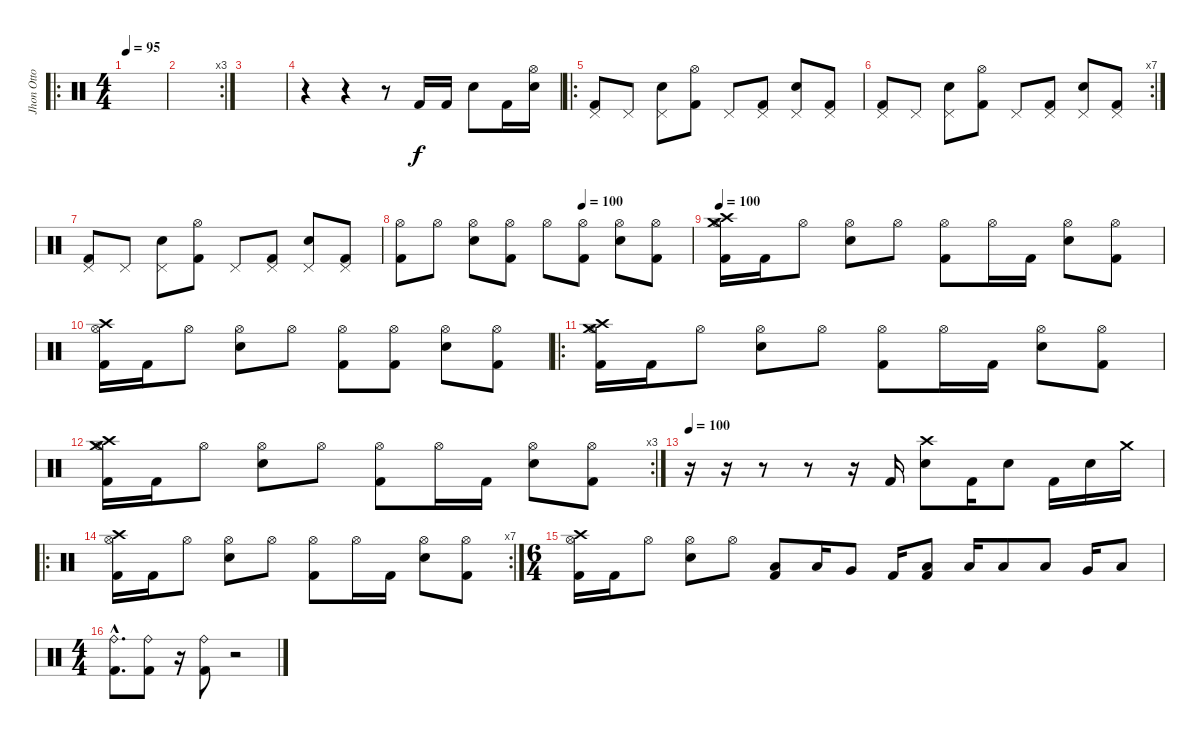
\track ("Jhon Otto" "Jhon Otto") {instrument percussion}
\staff {score}
\articulation defaults
\ro
\ts (4 4)
\tempo 95
\clef neutral
\ks c
|
\rc 3
|
|
r.4 r.4 r.8 "Kick (hit) 2".16 "Kick (hit) 2".16 "Snare (hit) 2".8 "Kick (hit) 2".16 ("Hi-Hat (open)" "Snare (hit) 2").16 |
\ro
("Pedal Hi-Hat (hit)" "Kick (hit) 2").8 "Pedal Hi-Hat (hit)".8 ("Pedal Hi-Hat (hit)" "Snare (hit) 2").8 ("Hi-Hat (open)" "Kick (hit) 2").8 "Pedal Hi-Hat (hit)".8 ("Pedal Hi-Hat (hit)" "Kick (hit) 2").8 ("Pedal Hi-Hat (hit)" "Snare (hit) 2").8 ("Pedal Hi-Hat (hit)" "Kick (hit) 2").8 |
\rc 7
("Pedal Hi-Hat (hit)" "Kick (hit) 2").8 "Pedal Hi-Hat (hit)".8 ("Pedal Hi-Hat (hit)" "Snare (hit) 2").8 ("Hi-Hat (open)" "Kick (hit) 2").8 "Pedal Hi-Hat (hit)".8 ("Pedal Hi-Hat (hit)" "Kick (hit) 2").8 ("Pedal Hi-Hat (hit)" "Snare (hit) 2").8 ("Pedal Hi-Hat (hit)" "Kick (hit) 2").8 |
("Pedal Hi-Hat (hit)" "Kick (hit) 2").8 "Pedal Hi-Hat (hit)".8 ("Pedal Hi-Hat (hit)" "Snare (hit) 2").8 ("Hi-Hat (open)" "Kick (hit) 2").8 "Pedal Hi-Hat (hit)".8 ("Pedal Hi-Hat (hit)" "Kick (hit) 2").8 ("Pedal Hi-Hat (hit)" "Snare (hit) 2").8 ("Pedal Hi-Hat (hit)" "Kick (hit) 2").8 |
\tempo (100 0.625)
("Hi-Hat (open)" "Kick (hit) 2").8 "Hi-Hat (open)".8 ("Hi-Hat (open)" "Snare (hit) 2").8 ("Hi-Hat (open)" "Kick (hit) 2").8 "Hi-Hat (open)".8 ("Hi-Hat (open)" "Kick (hit) 2").8 ("Hi-Hat (open)" "Snare (hit) 2").8 ("Hi-Hat (open)" "Kick (hit) 2").8 |
\tempo 100
("Crash high (hit)" "Hi-Hat (open)" "Kick (hit) 2" "Crash medium (hit)").16 "Kick (hit) 2".16 "Hi-Hat (open)".8 ("Hi-Hat (open)" "Snare (hit) 2").8 "Hi-Hat (open)".8 ("Hi-Hat (open)" "Kick (hit) 2").8 "Hi-Hat (open)".16 "Kick (hit) 2".16 ("Hi-Hat (open)" "Snare (hit) 2").8 ("Hi-Hat (open)" "Kick (hit) 2").8 |
("Crash high (hit)" "Hi-Hat (open)" "Kick (hit) 2").16 "Kick (hit) 2".16 "Hi-Hat (open)".8 ("Hi-Hat (open)" "Snare (hit) 2").8 "Hi-Hat (open)".8 ("Hi-Hat (open)" "Kick (hit) 2").8 ("Hi-Hat (open)" "Kick (hit) 2").8 ("Hi-Hat (open)" "Snare (hit) 2").8 ("Hi-Hat (open)" "Kick (hit) 2").8 |
\ro
("Crash high (hit)" "Hi-Hat (open)" "Kick (hit) 2" "Crash medium (hit)").16 "Kick (hit) 2".16 "Hi-Hat (open)".8 ("Hi-Hat (open)" "Snare (hit) 2").8 "Hi-Hat (open)".8 ("Hi-Hat (open)" "Kick (hit) 2").8 "Hi-Hat (open)".16 "Kick (hit) 2".16 ("Hi-Hat (open)" "Snare (hit) 2").8 ("Hi-Hat (open)" "Kick (hit) 2").8 |
\rc 3
("Crash high (hit)" "Hi-Hat (open)" "Kick (hit) 2" "Crash medium (hit)").16 "Kick (hit) 2".16 "Hi-Hat (open)".8 ("Hi-Hat (open)" "Snare (hit) 2").8 "Hi-Hat (open)".8 ("Hi-Hat (open)" "Kick (hit) 2").8 "Hi-Hat (open)".16 "Kick (hit) 2".16 ("Hi-Hat (open)" "Snare (hit) 2").8 ("Hi-Hat (open)" "Kick (hit) 2").8 |
\tempo 100
r.16 r.16 r.8 r.8 r.16 "Kick (hit) 2".16 ("Crash high (hit)" "Snare (hit) 2").8 "Kick (hit) 2".16 "Snare (hit) 2".8 "Kick (hit) 2".16 "Snare (hit) 2".16 "Crash medium (hit)".16 |
\ro
\rc 7
("Crash high (hit)" "Hi-Hat (open)" "Kick (hit) 2").16 "Kick (hit) 2".16 "Hi-Hat (open)".8 ("Hi-Hat (open)" "Snare (hit) 2").8 "Hi-Hat (open)".8 ("Hi-Hat (open)" "Kick (hit) 2").8 "Hi-Hat (open)".16 "Kick (hit) 2".16 ("Hi-Hat (open)" "Snare (hit) 2").8 ("Hi-Hat (open)" "Kick (hit) 2").8 |
\ts (6 4)
("Crash high (hit)" "Hi-Hat (open)" "Kick (hit) 2").16 "Kick (hit) 2".16 "Hi-Hat (open)".8 ("Hi-Hat (open)" "Snare (hit) 2").8 "Hi-Hat (open)".8 ("Low Floor Tom (hit)" "Kick (hit) 2").8 "Low Floor Tom (hit)".16 "Very Low Tom (hit)".8 "Kick (hit) 2".16 ("Low Floor Tom (hit)" "Kick (hit) 2").8 "Low Floor Tom (hit)".16 "Low Floor Tom (hit)".8 "Low Floor Tom (hit)".8 "Very Low Tom (hit)".16 "Low Floor Tom (hit)".8 |
\ts (4 4)
("Ride (bell)"{hac} "Kick (hit) 2"{hac}).8{d} ("Ride (bell)" "Kick (hit) 2").8 r.16 ("Ride (bell)" "Kick (hit) 2").8 r.2
